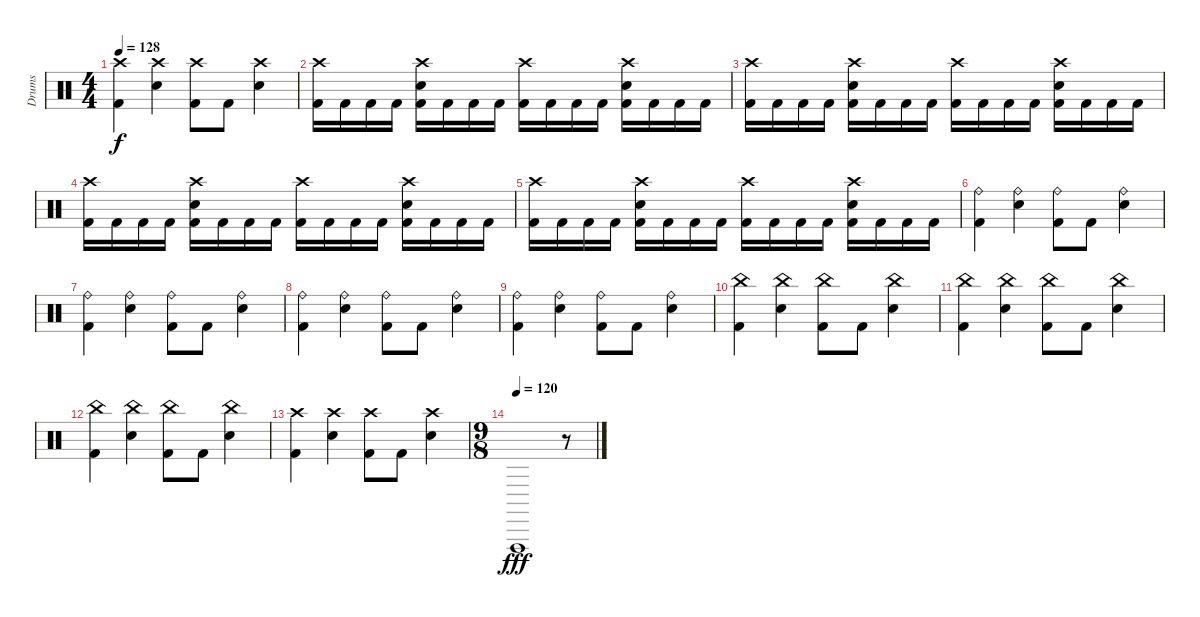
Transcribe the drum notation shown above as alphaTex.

\track ("Drums" "Drums") {instrument percussion}
\staff {score}
\articulation defaults
\ts (4 4)
\tempo 128
\clef neutral
\ks c
("Crash high (hit)" "Kick (hit) 2").4{dy f} ("Crash high (hit)" "Snare (hit) 2").4 ("Crash high (hit)" "Kick (hit) 2").8 "Kick (hit) 2".8 ("Crash high (hit)" "Snare (hit) 2").4 |
("Crash high (hit)" "Kick (hit) 2").16 "Kick (hit) 2".16 "Kick (hit) 2".16 "Kick (hit) 2".16 ("Crash high (hit)" "Snare (hit) 2" "Kick (hit) 2").16 "Kick (hit) 2".16 "Kick (hit) 2".16 "Kick (hit) 2".16 ("Crash high (hit)" "Kick (hit) 2").16 "Kick (hit) 2".16 "Kick (hit) 2".16 "Kick (hit) 2".16 ("Crash high (hit)" "Snare (hit) 2" "Kick (hit) 2").16 "Kick (hit) 2".16 "Kick (hit) 2".16 "Kick (hit) 2".16 |
("Crash high (hit)" "Kick (hit) 2").16 "Kick (hit) 2".16 "Kick (hit) 2".16 "Kick (hit) 2".16 ("Crash high (hit)" "Snare (hit) 2" "Kick (hit) 2").16 "Kick (hit) 2".16 "Kick (hit) 2".16 "Kick (hit) 2".16 ("Crash high (hit)" "Kick (hit) 2").16 "Kick (hit) 2".16 "Kick (hit) 2".16 "Kick (hit) 2".16 ("Crash high (hit)" "Snare (hit) 2" "Kick (hit) 2").16 "Kick (hit) 2".16 "Kick (hit) 2".16 "Kick (hit) 2".16 |
("Crash high (hit)" "Kick (hit) 2").16 "Kick (hit) 2".16 "Kick (hit) 2".16 "Kick (hit) 2".16 ("Crash high (hit)" "Snare (hit) 2" "Kick (hit) 2").16 "Kick (hit) 2".16 "Kick (hit) 2".16 "Kick (hit) 2".16 ("Crash high (hit)" "Kick (hit) 2").16 "Kick (hit) 2".16 "Kick (hit) 2".16 "Kick (hit) 2".16 ("Crash high (hit)" "Snare (hit) 2" "Kick (hit) 2").16 "Kick (hit) 2".16 "Kick (hit) 2".16 "Kick (hit) 2".16 |
("Crash high (hit)" "Kick (hit) 2").16 "Kick (hit) 2".16 "Kick (hit) 2".16 "Kick (hit) 2".16 ("Crash high (hit)" "Snare (hit) 2" "Kick (hit) 2").16 "Kick (hit) 2".16 "Kick (hit) 2".16 "Kick (hit) 2".16 ("Crash high (hit)" "Kick (hit) 2").16 "Kick (hit) 2".16 "Kick (hit) 2".16 "Kick (hit) 2".16 ("Crash high (hit)" "Snare (hit) 2" "Kick (hit) 2").16 "Kick (hit) 2".16 "Kick (hit) 2".16 "Kick (hit) 2".16 |
("Ride (bell)" "Kick (hit) 2").4 ("Ride (bell)" "Snare (hit) 2").4 ("Ride (bell)" "Kick (hit) 2").8 "Kick (hit) 2".8 ("Ride (bell)" "Snare (hit) 2").4 |
("Ride (bell)" "Kick (hit) 2").4 ("Ride (bell)" "Snare (hit) 2").4 ("Ride (bell)" "Kick (hit) 2").8 "Kick (hit) 2".8 ("Ride (bell)" "Snare (hit) 2").4 |
("Ride (bell)" "Kick (hit) 2").4 ("Ride (bell)" "Snare (hit) 2").4 ("Ride (bell)" "Kick (hit) 2").8 "Kick (hit) 2".8 ("Ride (bell)" "Snare (hit) 2").4 |
("Ride (bell)" "Kick (hit) 2").4 ("Ride (bell)" "Snare (hit) 2").4 ("Ride (bell)" "Kick (hit) 2").8 "Kick (hit) 2".8 ("Ride (bell)" "Snare (hit) 2").4 |
("China (hit)" "Kick (hit) 2").4 ("China (hit)" "Snare (hit) 2").4 ("China (hit)" "Kick (hit) 2").8 "Kick (hit) 2".8 ("China (hit)" "Snare (hit) 2").4 |
("China (hit)" "Kick (hit) 2").4 ("China (hit)" "Snare (hit) 2").4 ("China (hit)" "Kick (hit) 2").8 "Kick (hit) 2".8 ("China (hit)" "Snare (hit) 2").4 |
("China (hit)" "Kick (hit) 2").4 ("China (hit)" "Snare (hit) 2").4 ("China (hit)" "Kick (hit) 2").8 "Kick (hit) 2".8 ("China (hit)" "Snare (hit) 2").4 |
("Crash high (hit)" "Kick (hit) 2").4 ("Crash high (hit)" "Snare (hit) 2").4 ("Crash high (hit)" "Kick (hit) 2").8 "Kick (hit) 2".8 ("Crash high (hit)" "Snare (hit) 2").4 |
\ts (9 8)
\tempo (120)
"Vibraslap (hit)".1{dy fff} r.8
